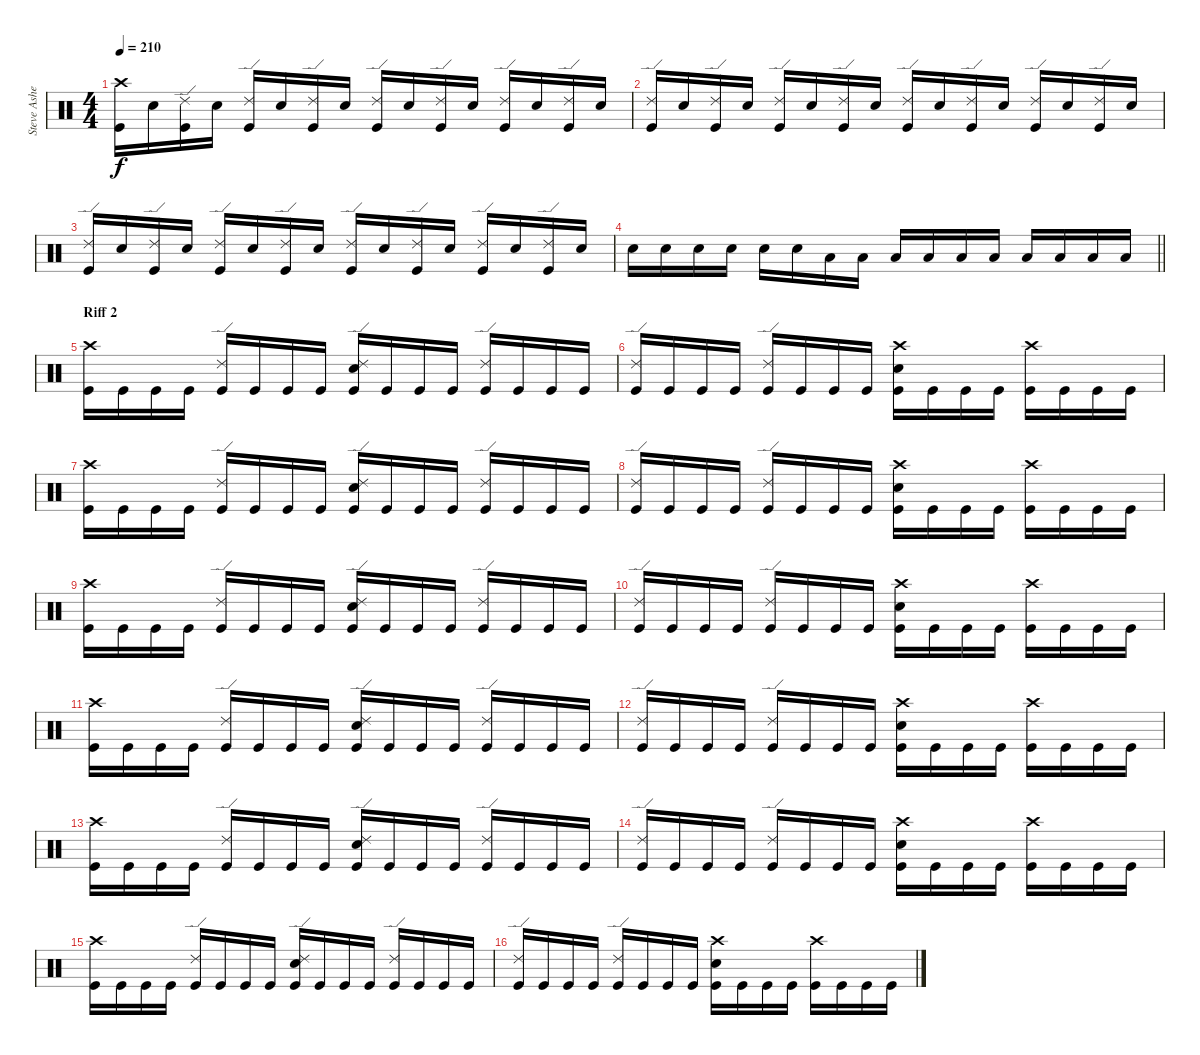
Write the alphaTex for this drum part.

\track ("Steve Asheim" "Steve Ashe") {instrument percussion}
\staff {score}
\articulation defaults
\ts (4 4)
\tempo 210
\clef neutral
\ks c
("Crash high (hit)" "Kick (hit)").16{dy f} "Snare (hit) 2".16 ("Ride (edge) 2" "Kick (hit)").16 "Snare (hit) 2".16 ("Ride (edge) 2" "Kick (hit)").16 "Snare (hit) 2".16 ("Ride (edge) 2" "Kick (hit)").16 "Snare (hit) 2".16 ("Ride (edge) 2" "Kick (hit)").16 "Snare (hit) 2".16 ("Ride (edge) 2" "Kick (hit)").16 "Snare (hit) 2".16 ("Ride (edge) 2" "Kick (hit)").16 "Snare (hit) 2".16 ("Ride (edge) 2" "Kick (hit)").16 "Snare (hit) 2".16 |
("Ride (edge) 2" "Kick (hit)").16 "Snare (hit) 2".16 ("Ride (edge) 2" "Kick (hit)").16 "Snare (hit) 2".16 ("Ride (edge) 2" "Kick (hit)").16 "Snare (hit) 2".16 ("Ride (edge) 2" "Kick (hit)").16 "Snare (hit) 2".16 ("Ride (edge) 2" "Kick (hit)").16 "Snare (hit) 2".16 ("Ride (edge) 2" "Kick (hit)").16 "Snare (hit) 2".16 ("Ride (edge) 2" "Kick (hit)").16 "Snare (hit) 2".16 ("Ride (edge) 2" "Kick (hit)").16 "Snare (hit) 2".16 |
("Ride (edge) 2" "Kick (hit)").16 "Snare (hit) 2".16 ("Ride (edge) 2" "Kick (hit)").16 "Snare (hit) 2".16 ("Ride (edge) 2" "Kick (hit)").16 "Snare (hit) 2".16 ("Ride (edge) 2" "Kick (hit)").16 "Snare (hit) 2".16 ("Ride (edge) 2" "Kick (hit)").16 "Snare (hit) 2".16 ("Ride (edge) 2" "Kick (hit)").16 "Snare (hit) 2".16 ("Ride (edge) 2" "Kick (hit)").16 "Snare (hit) 2".16 ("Ride (edge) 2" "Kick (hit)").16 "Snare (hit) 2".16 |
\barLineRight lightlight "Snare (hit) 2".16 "Snare (hit) 2".16 "Snare (hit) 2".16 "Snare (hit) 2".16 "Snare (hit) 2".16 "Snare (hit) 2".16 "Low Tom (hit)".16 "Low Tom (hit)".16 "Low Tom (hit)".16 "Low Tom (hit)".16 "Low Tom (hit)".16 "Low Tom (hit)".16 "Low Tom (hit)".16 "Low Tom (hit)".16 "Low Floor Tom (hit)".16 "Low Floor Tom (hit)".16
|
\section ("" "Riff 2")
("Crash high (hit)" "Kick (hit)").16 "Kick (hit)".16 "Kick (hit)".16 "Kick (hit)".16 ("Ride (edge) 2" "Kick (hit)").16 "Kick (hit)".16 "Kick (hit)".16 "Kick (hit)".16 ("Ride (edge) 2" "Snare (hit) 2" "Kick (hit)").16 "Kick (hit)".16 "Kick (hit)".16 "Kick (hit)".16 ("Ride (edge) 2" "Kick (hit)").16 "Kick (hit)".16 "Kick (hit)".16 "Kick (hit)".16 |
("Ride (edge) 2" "Kick (hit)").16 "Kick (hit)".16 "Kick (hit)".16 "Kick (hit)".16 ("Ride (edge) 2" "Kick (hit)").16 "Kick (hit)".16 "Kick (hit)".16 "Kick (hit)".16 ("Crash high (hit)" "Snare (hit) 2" "Kick (hit)").16 "Kick (hit)".16 "Kick (hit)".16 "Kick (hit)".16 ("Crash high (hit)" "Kick (hit)").16 "Kick (hit)".16 "Kick (hit)".16 "Kick (hit)".16 |
("Crash high (hit)" "Kick (hit)").16 "Kick (hit)".16 "Kick (hit)".16 "Kick (hit)".16 ("Ride (edge) 2" "Kick (hit)").16 "Kick (hit)".16 "Kick (hit)".16 "Kick (hit)".16 ("Ride (edge) 2" "Snare (hit) 2" "Kick (hit)").16 "Kick (hit)".16 "Kick (hit)".16 "Kick (hit)".16 ("Ride (edge) 2" "Kick (hit)").16 "Kick (hit)".16 "Kick (hit)".16 "Kick (hit)".16 |
("Ride (edge) 2" "Kick (hit)").16 "Kick (hit)".16 "Kick (hit)".16 "Kick (hit)".16 ("Ride (edge) 2" "Kick (hit)").16 "Kick (hit)".16 "Kick (hit)".16 "Kick (hit)".16 ("Crash high (hit)" "Snare (hit) 2" "Kick (hit)").16 "Kick (hit)".16 "Kick (hit)".16 "Kick (hit)".16 ("Crash high (hit)" "Kick (hit)").16 "Kick (hit)".16 "Kick (hit)".16 "Kick (hit)".16 |
("Crash high (hit)" "Kick (hit)").16 "Kick (hit)".16 "Kick (hit)".16 "Kick (hit)".16 ("Ride (edge) 2" "Kick (hit)").16 "Kick (hit)".16 "Kick (hit)".16 "Kick (hit)".16 ("Ride (edge) 2" "Snare (hit) 2" "Kick (hit)").16 "Kick (hit)".16 "Kick (hit)".16 "Kick (hit)".16 ("Ride (edge) 2" "Kick (hit)").16 "Kick (hit)".16 "Kick (hit)".16 "Kick (hit)".16 |
("Ride (edge) 2" "Kick (hit)").16 "Kick (hit)".16 "Kick (hit)".16 "Kick (hit)".16 ("Ride (edge) 2" "Kick (hit)").16 "Kick (hit)".16 "Kick (hit)".16 "Kick (hit)".16 ("Crash high (hit)" "Snare (hit) 2" "Kick (hit)").16 "Kick (hit)".16 "Kick (hit)".16 "Kick (hit)".16 ("Crash high (hit)" "Kick (hit)").16 "Kick (hit)".16 "Kick (hit)".16 "Kick (hit)".16 |
("Crash high (hit)" "Kick (hit)").16 "Kick (hit)".16 "Kick (hit)".16 "Kick (hit)".16 ("Ride (edge) 2" "Kick (hit)").16 "Kick (hit)".16 "Kick (hit)".16 "Kick (hit)".16 ("Ride (edge) 2" "Snare (hit) 2" "Kick (hit)").16 "Kick (hit)".16 "Kick (hit)".16 "Kick (hit)".16 ("Ride (edge) 2" "Kick (hit)").16 "Kick (hit)".16 "Kick (hit)".16 "Kick (hit)".16 |
("Ride (edge) 2" "Kick (hit)").16 "Kick (hit)".16 "Kick (hit)".16 "Kick (hit)".16 ("Ride (edge) 2" "Kick (hit)").16 "Kick (hit)".16 "Kick (hit)".16 "Kick (hit)".16 ("Crash high (hit)" "Snare (hit) 2" "Kick (hit)").16 "Kick (hit)".16 "Kick (hit)".16 "Kick (hit)".16 ("Crash high (hit)" "Kick (hit)").16 "Kick (hit)".16 "Kick (hit)".16 "Kick (hit)".16 |
("Crash high (hit)" "Kick (hit)").16 "Kick (hit)".16 "Kick (hit)".16 "Kick (hit)".16 ("Ride (edge) 2" "Kick (hit)").16 "Kick (hit)".16 "Kick (hit)".16 "Kick (hit)".16 ("Ride (edge) 2" "Snare (hit) 2" "Kick (hit)").16 "Kick (hit)".16 "Kick (hit)".16 "Kick (hit)".16 ("Ride (edge) 2" "Kick (hit)").16 "Kick (hit)".16 "Kick (hit)".16 "Kick (hit)".16 |
("Ride (edge) 2" "Kick (hit)").16 "Kick (hit)".16 "Kick (hit)".16 "Kick (hit)".16 ("Ride (edge) 2" "Kick (hit)").16 "Kick (hit)".16 "Kick (hit)".16 "Kick (hit)".16 ("Crash high (hit)" "Snare (hit) 2" "Kick (hit)").16 "Kick (hit)".16 "Kick (hit)".16 "Kick (hit)".16 ("Crash high (hit)" "Kick (hit)").16 "Kick (hit)".16 "Kick (hit)".16 "Kick (hit)".16 |
("Crash high (hit)" "Kick (hit)").16 "Kick (hit)".16 "Kick (hit)".16 "Kick (hit)".16 ("Ride (edge) 2" "Kick (hit)").16 "Kick (hit)".16 "Kick (hit)".16 "Kick (hit)".16 ("Ride (edge) 2" "Snare (hit) 2" "Kick (hit)").16 "Kick (hit)".16 "Kick (hit)".16 "Kick (hit)".16 ("Ride (edge) 2" "Kick (hit)").16 "Kick (hit)".16 "Kick (hit)".16 "Kick (hit)".16 |
("Ride (edge) 2" "Kick (hit)").16 "Kick (hit)".16 "Kick (hit)".16 "Kick (hit)".16 ("Ride (edge) 2" "Kick (hit)").16 "Kick (hit)".16 "Kick (hit)".16 "Kick (hit)".16 ("Crash high (hit)" "Snare (hit) 2" "Kick (hit)").16 "Kick (hit)".16 "Kick (hit)".16 "Kick (hit)".16 ("Crash high (hit)" "Kick (hit)").16 "Kick (hit)".16 "Kick (hit)".16 "Kick (hit)".16
